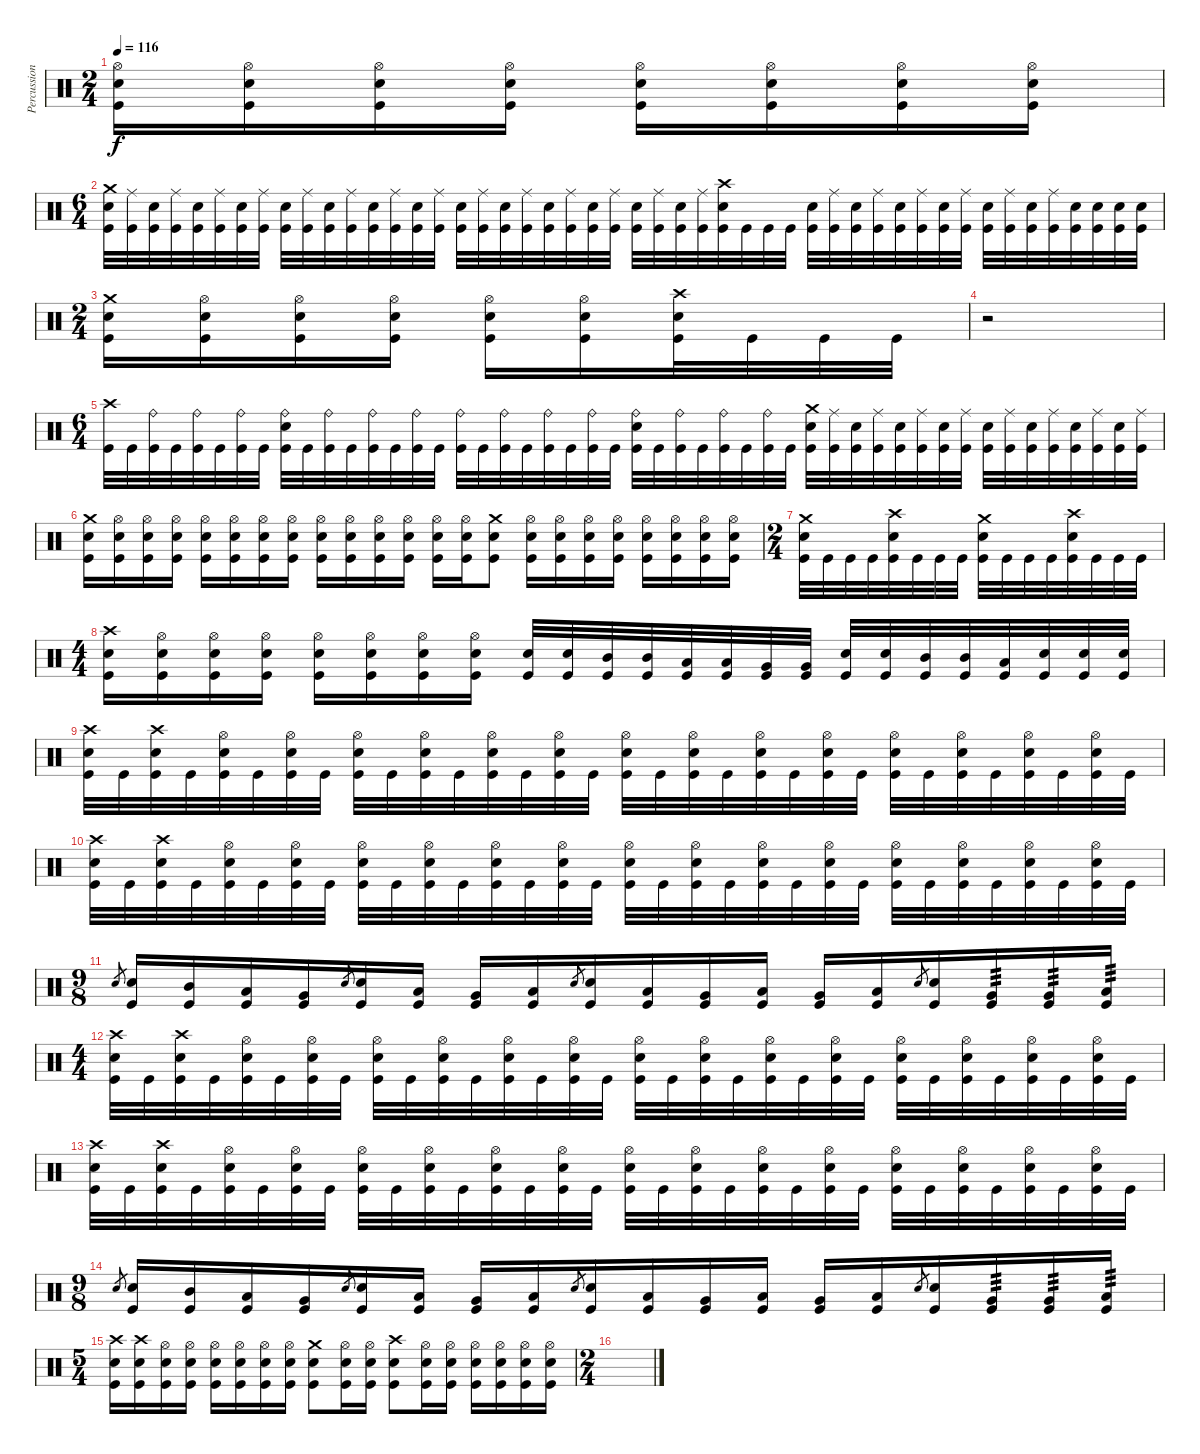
\track ("Percussion" "Percussion") {instrument percussion}
\staff {score}
\articulation defaults
\ts (2 4)
\tempo 116
\clef neutral
\ks c
("Hi-Hat (open)" "Electric Snare (hit)" "Kick (hit)").16{dy f} ("Hi-Hat (open)" "Electric Snare (hit)" "Kick (hit)").16 ("Hi-Hat (open)" "Electric Snare (hit)" "Kick (hit)").16 ("Hi-Hat (open)" "Electric Snare (hit)" "Kick (hit)").16 ("Hi-Hat (open)" "Electric Snare (hit)" "Kick (hit)").16 ("Hi-Hat (open)" "Electric Snare (hit)" "Kick (hit)").16 ("Hi-Hat (open)" "Electric Snare (hit)" "Kick (hit)").16 ("Hi-Hat (open)" "Electric Snare (hit)" "Kick (hit)").16 |
\ts (6 4)
("Crash medium (hit)" "Electric Snare (hit)" "Kick (hit)").32 ("Ride (middle)" "Kick (hit)").32 ("Electric Snare (hit)" "Kick (hit)").32 ("Ride (middle)" "Kick (hit)").32 ("Electric Snare (hit)" "Kick (hit)").32 ("Ride (middle)" "Kick (hit)").32 ("Electric Snare (hit)" "Kick (hit)").32 ("Ride (middle)" "Kick (hit)").32 ("Electric Snare (hit)" "Kick (hit)").32 ("Ride (middle)" "Kick (hit)").32 ("Electric Snare (hit)" "Kick (hit)").32 ("Ride (middle)" "Kick (hit)").32 ("Electric Snare (hit)" "Kick (hit)").32 ("Ride (middle)" "Kick (hit)").32 ("Electric Snare (hit)" "Kick (hit)").32 ("Ride (middle)" "Kick (hit)").32 ("Electric Snare (hit)" "Kick (hit)").32 ("Ride (middle)" "Kick (hit)").32 ("Electric Snare (hit)" "Kick (hit)").32 ("Ride (middle)" "Kick (hit)").32 ("Electric Snare (hit)" "Kick (hit)").32 ("Ride (middle)" "Kick (hit)").32 ("Electric Snare (hit)" "Kick (hit)").32 ("Ride (middle)" "Kick (hit)").32 ("Electric Snare (hit)" "Kick (hit)").32 ("Ride (middle)" "Kick (hit)").32 ("Electric Snare (hit)" "Kick (hit)").32 ("Ride (middle)" "Kick (hit)").32 ("Crash high (hit)" "Electric Snare (hit)" "Kick (hit)").32 "Kick (hit)".32 "Kick (hit)".32 "Kick (hit)".32 ("Electric Snare (hit)" "Kick (hit)").32 ("Ride (middle)" "Kick (hit)").32 ("Electric Snare (hit)" "Kick (hit)").32 ("Ride (middle)" "Kick (hit)").32 ("Electric Snare (hit)" "Kick (hit)").32 ("Ride (middle)" "Kick (hit)").32 ("Electric Snare (hit)" "Kick (hit)").32 ("Ride (middle)" "Kick (hit)").32 ("Electric Snare (hit)" "Kick (hit)").32 ("Ride (middle)" "Kick (hit)").32 ("Electric Snare (hit)" "Kick (hit)").32 ("Ride (middle)" "Kick (hit)").32 ("Electric Snare (hit)" "Kick (hit)").32 ("Electric Snare (hit)" "Kick (hit)").32 ("Electric Snare (hit)" "Kick (hit)").32 ("Electric Snare (hit)" "Kick (hit)").32 |
\ts (2 4)
("Crash medium (hit)" "Electric Snare (hit)" "Kick (hit)").16 ("Hi-Hat (open)" "Electric Snare (hit)" "Kick (hit)").16 ("Hi-Hat (open)" "Electric Snare (hit)" "Kick (hit)").16 ("Hi-Hat (open)" "Electric Snare (hit)" "Kick (hit)").16 ("Hi-Hat (open)" "Electric Snare (hit)" "Kick (hit)").16 ("Hi-Hat (open)" "Electric Snare (hit)" "Kick (hit)").16 ("Crash high (hit)" "Electric Snare (hit)" "Kick (hit)").32 "Kick (hit)".32 "Kick (hit)".32 "Kick (hit)".32 |
r.2 |
\ts (6 4)
("Crash high (hit)" "Kick (hit)").32 "Kick (hit)".32 ("Ride (bell)" "Kick (hit)").32 "Kick (hit)".32 ("Ride (bell)" "Kick (hit)").32 "Kick (hit)".32 ("Ride (bell)" "Kick (hit)").32 "Kick (hit)".32 ("Ride (bell)" "Electric Snare (hit)" "Kick (hit)").32 "Kick (hit)".32 ("Ride (bell)" "Kick (hit)").32 "Kick (hit)".32 ("Ride (bell)" "Kick (hit)").32 "Kick (hit)".32 ("Ride (bell)" "Kick (hit)").32 "Kick (hit)".32 ("Ride (bell)" "Kick (hit)").32 "Kick (hit)".32 ("Ride (bell)" "Kick (hit)").32 "Kick (hit)".32 ("Ride (bell)" "Kick (hit)").32 "Kick (hit)".32 ("Ride (bell)" "Kick (hit)").32 "Kick (hit)".32 ("Ride (bell)" "Electric Snare (hit)" "Kick (hit)").32 "Kick (hit)".32 ("Ride (bell)" "Kick (hit)").32 "Kick (hit)".32 ("Ride (bell)" "Kick (hit)").32 "Kick (hit)".32 ("Ride (bell)" "Kick (hit)").32 "Kick (hit)".32 ("Crash medium (hit)" "Electric Snare (hit)" "Kick (hit)").32 ("Ride (middle)" "Kick (hit)").32 ("Electric Snare (hit)" "Kick (hit)").32 ("Ride (middle)" "Kick (hit)").32 ("Electric Snare (hit)" "Kick (hit)").32 ("Ride (middle)" "Kick (hit)").32 ("Electric Snare (hit)" "Kick (hit)").32 ("Ride (middle)" "Kick (hit)").32 ("Electric Snare (hit)" "Kick (hit)").32 ("Ride (middle)" "Kick (hit)").32 ("Electric Snare (hit)" "Kick (hit)").32 ("Ride (middle)" "Kick (hit)").32 ("Electric Snare (hit)" "Kick (hit)").32 ("Ride (middle)" "Kick (hit)").32 ("Electric Snare (hit)" "Kick (hit)").32 ("Ride (middle)" "Kick (hit)").32 |
("Crash medium (hit)" "Electric Snare (hit)" "Kick (hit)").16 ("Hi-Hat (open)" "Electric Snare (hit)" "Kick (hit)").16 ("Hi-Hat (open)" "Electric Snare (hit)" "Kick (hit)").16 ("Hi-Hat (open)" "Electric Snare (hit)" "Kick (hit)").16 ("Hi-Hat (open)" "Electric Snare (hit)" "Kick (hit)").16 ("Hi-Hat (open)" "Electric Snare (hit)" "Kick (hit)").16 ("Hi-Hat (open)" "Electric Snare (hit)" "Kick (hit)").16 ("Hi-Hat (open)" "Electric Snare (hit)" "Kick (hit)").16 ("Hi-Hat (open)" "Electric Snare (hit)" "Kick (hit)").16 ("Hi-Hat (open)" "Electric Snare (hit)" "Kick (hit)").16 ("Hi-Hat (open)" "Electric Snare (hit)" "Kick (hit)").16 ("Hi-Hat (open)" "Electric Snare (hit)" "Kick (hit)").16 ("Hi-Hat (open)" "Electric Snare (hit)" "Kick (hit)").16 ("Hi-Hat (open)" "Electric Snare (hit)" "Kick (hit)").16 ("Crash medium (hit)" "Electric Snare (hit)" "Kick (hit)").8 ("Hi-Hat (open)" "Electric Snare (hit)" "Kick (hit)").16 ("Hi-Hat (open)" "Electric Snare (hit)" "Kick (hit)").16 ("Hi-Hat (open)" "Electric Snare (hit)" "Kick (hit)").16 ("Hi-Hat (open)" "Electric Snare (hit)" "Kick (hit)").16 ("Hi-Hat (open)" "Electric Snare (hit)" "Kick (hit)").16 ("Hi-Hat (open)" "Electric Snare (hit)" "Kick (hit)").16 ("Hi-Hat (open)" "Electric Snare (hit)" "Kick (hit)").16 ("Hi-Hat (open)" "Electric Snare (hit)" "Kick (hit)").16 |
\ts (2 4)
("Crash medium (hit)" "Electric Snare (hit)" "Kick (hit)").32 "Kick (hit)".32 "Kick (hit)".32 "Kick (hit)".32 ("Crash high (hit)" "Electric Snare (hit)" "Kick (hit)").32 "Kick (hit)".32 "Kick (hit)".32 "Kick (hit)".32 ("Crash medium (hit)" "Electric Snare (hit)" "Kick (hit)").32 "Kick (hit)".32 "Kick (hit)".32 "Kick (hit)".32 ("Crash high (hit)" "Electric Snare (hit)" "Kick (hit)").32 "Kick (hit)".32 "Kick (hit)".32 "Kick (hit)".32 |
\ts (4 4)
("Crash high (hit)" "Electric Snare (hit)" "Kick (hit)").16 ("Hi-Hat (open)" "Electric Snare (hit)" "Kick (hit)").16 ("Hi-Hat (open)" "Electric Snare (hit)" "Kick (hit)").16 ("Hi-Hat (open)" "Electric Snare (hit)" "Kick (hit)").16 ("Hi-Hat (open)" "Electric Snare (hit)" "Kick (hit)").16 ("Hi-Hat (open)" "Electric Snare (hit)" "Kick (hit)").16 ("Hi-Hat (open)" "Electric Snare (hit)" "Kick (hit)").16 ("Hi-Hat (open)" "Electric Snare (hit)" "Kick (hit)").16 ("Electric Snare (hit)" "Kick (hit)").32 ("Electric Snare (hit)" "Kick (hit)").32 ("Mid Tom (hit)" "Kick (hit)").32 ("Mid Tom (hit)" "Kick (hit)").32 ("Low Tom (hit)" "Kick (hit)").32 ("Low Tom (hit)" "Kick (hit)").32 ("Very Low Tom (hit)" "Kick (hit)").32 ("Very Low Tom (hit)" "Kick (hit)").32 ("Electric Snare (hit)" "Kick (hit)").32 ("Electric Snare (hit)" "Kick (hit)").32 ("Mid Tom (hit)" "Kick (hit)").32 ("Mid Tom (hit)" "Kick (hit)").32 ("Low Tom (hit)" "Kick (hit)").32 ("Electric Snare (hit)" "Kick (hit)").32 ("Electric Snare (hit)" "Kick (hit)").32 ("Electric Snare (hit)" "Kick (hit)").32 |
("Crash high (hit)" "Electric Snare (hit)" "Kick (hit)").32 "Kick (hit)".32 ("Crash high (hit)" "Electric Snare (hit)" "Kick (hit)").32 "Kick (hit)".32 ("Hi-Hat (open)" "Electric Snare (hit)" "Kick (hit)").32 "Kick (hit)".32 ("Hi-Hat (open)" "Electric Snare (hit)" "Kick (hit)").32 "Kick (hit)".32 ("Hi-Hat (open)" "Electric Snare (hit)" "Kick (hit)").32 "Kick (hit)".32 ("Hi-Hat (open)" "Electric Snare (hit)" "Kick (hit)").32 "Kick (hit)".32 ("Hi-Hat (open)" "Electric Snare (hit)" "Kick (hit)").32 "Kick (hit)".32 ("Hi-Hat (open)" "Electric Snare (hit)" "Kick (hit)").32 "Kick (hit)".32 ("Hi-Hat (open)" "Electric Snare (hit)" "Kick (hit)").32 "Kick (hit)".32 ("Hi-Hat (open)" "Electric Snare (hit)" "Kick (hit)").32 "Kick (hit)".32 ("Hi-Hat (open)" "Electric Snare (hit)" "Kick (hit)").32 "Kick (hit)".32 ("Hi-Hat (open)" "Electric Snare (hit)" "Kick (hit)").32 "Kick (hit)".32 ("Hi-Hat (open)" "Electric Snare (hit)" "Kick (hit)").32 "Kick (hit)".32 ("Hi-Hat (open)" "Electric Snare (hit)" "Kick (hit)").32 "Kick (hit)".32 ("Hi-Hat (open)" "Electric Snare (hit)" "Kick (hit)").32 "Kick (hit)".32 ("Hi-Hat (open)" "Electric Snare (hit)" "Kick (hit)").32 "Kick (hit)".32 |
("Crash high (hit)" "Electric Snare (hit)" "Kick (hit)").32 "Kick (hit)".32 ("Crash high (hit)" "Electric Snare (hit)" "Kick (hit)").32 "Kick (hit)".32 ("Hi-Hat (open)" "Electric Snare (hit)" "Kick (hit)").32 "Kick (hit)".32 ("Hi-Hat (open)" "Electric Snare (hit)" "Kick (hit)").32 "Kick (hit)".32 ("Hi-Hat (open)" "Electric Snare (hit)" "Kick (hit)").32 "Kick (hit)".32 ("Hi-Hat (open)" "Electric Snare (hit)" "Kick (hit)").32 "Kick (hit)".32 ("Hi-Hat (open)" "Electric Snare (hit)" "Kick (hit)").32 "Kick (hit)".32 ("Hi-Hat (open)" "Electric Snare (hit)" "Kick (hit)").32 "Kick (hit)".32 ("Hi-Hat (open)" "Electric Snare (hit)" "Kick (hit)").32 "Kick (hit)".32 ("Hi-Hat (open)" "Electric Snare (hit)" "Kick (hit)").32 "Kick (hit)".32 ("Hi-Hat (open)" "Electric Snare (hit)" "Kick (hit)").32 "Kick (hit)".32 ("Hi-Hat (open)" "Electric Snare (hit)" "Kick (hit)").32 "Kick (hit)".32 ("Hi-Hat (open)" "Electric Snare (hit)" "Kick (hit)").32 "Kick (hit)".32 ("Hi-Hat (open)" "Electric Snare (hit)" "Kick (hit)").32 "Kick (hit)".32 ("Hi-Hat (open)" "Electric Snare (hit)" "Kick (hit)").32 "Kick (hit)".32 ("Hi-Hat (open)" "Electric Snare (hit)" "Kick (hit)").32 "Kick (hit)".32 |
\ts (9 8)
"Electric Snare (hit)".8{gr} ("Electric Snare (hit)" "Kick (hit)").16 ("Mid Tom (hit)" "Kick (hit)").16 ("Low Tom (hit)" "Kick (hit)").16 ("Very Low Tom (hit)" "Kick (hit)").16 "Electric Snare (hit)".8{gr} ("Electric Snare (hit)" "Kick (hit)").16 ("Low Tom (hit)" "Kick (hit)").16 ("Very Low Tom (hit)" "Kick (hit)").16 ("Low Floor Tom (hit)" "Kick (hit)").16 "Electric Snare (hit)".8{gr} ("Electric Snare (hit)" "Kick (hit)").16 ("Low Tom (hit)" "Kick (hit)").16 ("Very Low Tom (hit)" "Kick (hit)").16 ("Low Tom (hit)" "Kick (hit)").16 ("Very Low Tom (hit)" "Kick (hit)").16 ("Low Floor Tom (hit)" "Kick (hit)").16 "Electric Snare (hit)".8{gr} ("Electric Snare (hit)" "Kick (hit)").16 ("Very Low Tom (hit)" "Kick (hit)").16{tp 3} ("Very Low Tom (hit)" "Kick (hit)").16{tp 3} ("Low Floor Tom (hit)" "Kick (hit)").16{tp 3} |
\ts (4 4)
("Crash high (hit)" "Electric Snare (hit)" "Kick (hit)").32 "Kick (hit)".32 ("Crash high (hit)" "Electric Snare (hit)" "Kick (hit)").32 "Kick (hit)".32 ("Hi-Hat (open)" "Electric Snare (hit)" "Kick (hit)").32 "Kick (hit)".32 ("Hi-Hat (open)" "Electric Snare (hit)" "Kick (hit)").32 "Kick (hit)".32 ("Hi-Hat (open)" "Electric Snare (hit)" "Kick (hit)").32 "Kick (hit)".32 ("Hi-Hat (open)" "Electric Snare (hit)" "Kick (hit)").32 "Kick (hit)".32 ("Hi-Hat (open)" "Electric Snare (hit)" "Kick (hit)").32 "Kick (hit)".32 ("Hi-Hat (open)" "Electric Snare (hit)" "Kick (hit)").32 "Kick (hit)".32 ("Hi-Hat (open)" "Electric Snare (hit)" "Kick (hit)").32 "Kick (hit)".32 ("Hi-Hat (open)" "Electric Snare (hit)" "Kick (hit)").32 "Kick (hit)".32 ("Hi-Hat (open)" "Electric Snare (hit)" "Kick (hit)").32 "Kick (hit)".32 ("Hi-Hat (open)" "Electric Snare (hit)" "Kick (hit)").32 "Kick (hit)".32 ("Hi-Hat (open)" "Electric Snare (hit)" "Kick (hit)").32 "Kick (hit)".32 ("Hi-Hat (open)" "Electric Snare (hit)" "Kick (hit)").32 "Kick (hit)".32 ("Hi-Hat (open)" "Electric Snare (hit)" "Kick (hit)").32 "Kick (hit)".32 ("Hi-Hat (open)" "Electric Snare (hit)" "Kick (hit)").32 "Kick (hit)".32 |
("Crash high (hit)" "Electric Snare (hit)" "Kick (hit)").32 "Kick (hit)".32 ("Crash high (hit)" "Electric Snare (hit)" "Kick (hit)").32 "Kick (hit)".32 ("Hi-Hat (open)" "Electric Snare (hit)" "Kick (hit)").32 "Kick (hit)".32 ("Hi-Hat (open)" "Electric Snare (hit)" "Kick (hit)").32 "Kick (hit)".32 ("Hi-Hat (open)" "Electric Snare (hit)" "Kick (hit)").32 "Kick (hit)".32 ("Hi-Hat (open)" "Electric Snare (hit)" "Kick (hit)").32 "Kick (hit)".32 ("Hi-Hat (open)" "Electric Snare (hit)" "Kick (hit)").32 "Kick (hit)".32 ("Hi-Hat (open)" "Electric Snare (hit)" "Kick (hit)").32 "Kick (hit)".32 ("Hi-Hat (open)" "Electric Snare (hit)" "Kick (hit)").32 "Kick (hit)".32 ("Hi-Hat (open)" "Electric Snare (hit)" "Kick (hit)").32 "Kick (hit)".32 ("Hi-Hat (open)" "Electric Snare (hit)" "Kick (hit)").32 "Kick (hit)".32 ("Hi-Hat (open)" "Electric Snare (hit)" "Kick (hit)").32 "Kick (hit)".32 ("Hi-Hat (open)" "Electric Snare (hit)" "Kick (hit)").32 "Kick (hit)".32 ("Hi-Hat (open)" "Electric Snare (hit)" "Kick (hit)").32 "Kick (hit)".32 ("Hi-Hat (open)" "Electric Snare (hit)" "Kick (hit)").32 "Kick (hit)".32 ("Hi-Hat (open)" "Electric Snare (hit)" "Kick (hit)").32 "Kick (hit)".32 |
\ts (9 8)
"Electric Snare (hit)".8{gr} ("Electric Snare (hit)" "Kick (hit)").16 ("Mid Tom (hit)" "Kick (hit)").16 ("Low Tom (hit)" "Kick (hit)").16 ("Very Low Tom (hit)" "Kick (hit)").16 "Electric Snare (hit)".8{gr} ("Electric Snare (hit)" "Kick (hit)").16 ("Low Tom (hit)" "Kick (hit)").16 ("Very Low Tom (hit)" "Kick (hit)").16 ("Low Floor Tom (hit)" "Kick (hit)").16 "Electric Snare (hit)".8{gr} ("Electric Snare (hit)" "Kick (hit)").16 ("Low Tom (hit)" "Kick (hit)").16 ("Very Low Tom (hit)" "Kick (hit)").16 ("Low Tom (hit)" "Kick (hit)").16 ("Very Low Tom (hit)" "Kick (hit)").16 ("Low Floor Tom (hit)" "Kick (hit)").16 "Electric Snare (hit)".8{gr} ("Electric Snare (hit)" "Kick (hit)").16 ("Very Low Tom (hit)" "Kick (hit)").16{tp 3} ("Very Low Tom (hit)" "Kick (hit)").16{tp 3} ("Low Floor Tom (hit)" "Kick (hit)").16{tp 3} |
\ts (5 4)
("Crash high (hit)" "Electric Snare (hit)" "Kick (hit)").16 ("Crash high (hit)" "Electric Snare (hit)" "Kick (hit)").16 ("Hi-Hat (open)" "Electric Snare (hit)" "Kick (hit)").16 ("Hi-Hat (open)" "Electric Snare (hit)" "Kick (hit)").16 ("Hi-Hat (open)" "Electric Snare (hit)" "Kick (hit)").16 ("Hi-Hat (open)" "Electric Snare (hit)" "Kick (hit)").16 ("Hi-Hat (open)" "Electric Snare (hit)" "Kick (hit)").16 ("Hi-Hat (open)" "Electric Snare (hit)" "Kick (hit)").16 ("Crash medium (hit)" "Electric Snare (hit)" "Kick (hit)").8 ("Hi-Hat (open)" "Electric Snare (hit)" "Kick (hit)").16 ("Hi-Hat (open)" "Electric Snare (hit)" "Kick (hit)").16 ("Crash high (hit)" "Electric Snare (hit)" "Kick (hit)").8 ("Hi-Hat (open)" "Electric Snare (hit)" "Kick (hit)").16 ("Hi-Hat (open)" "Electric Snare (hit)" "Kick (hit)").16 ("Hi-Hat (open)" "Electric Snare (hit)" "Kick (hit)").16 ("Hi-Hat (open)" "Electric Snare (hit)" "Kick (hit)").16 ("Hi-Hat (open)" "Electric Snare (hit)" "Kick (hit)").16 ("Hi-Hat (open)" "Electric Snare (hit)" "Kick (hit)").16 |
\ts (2 4)
